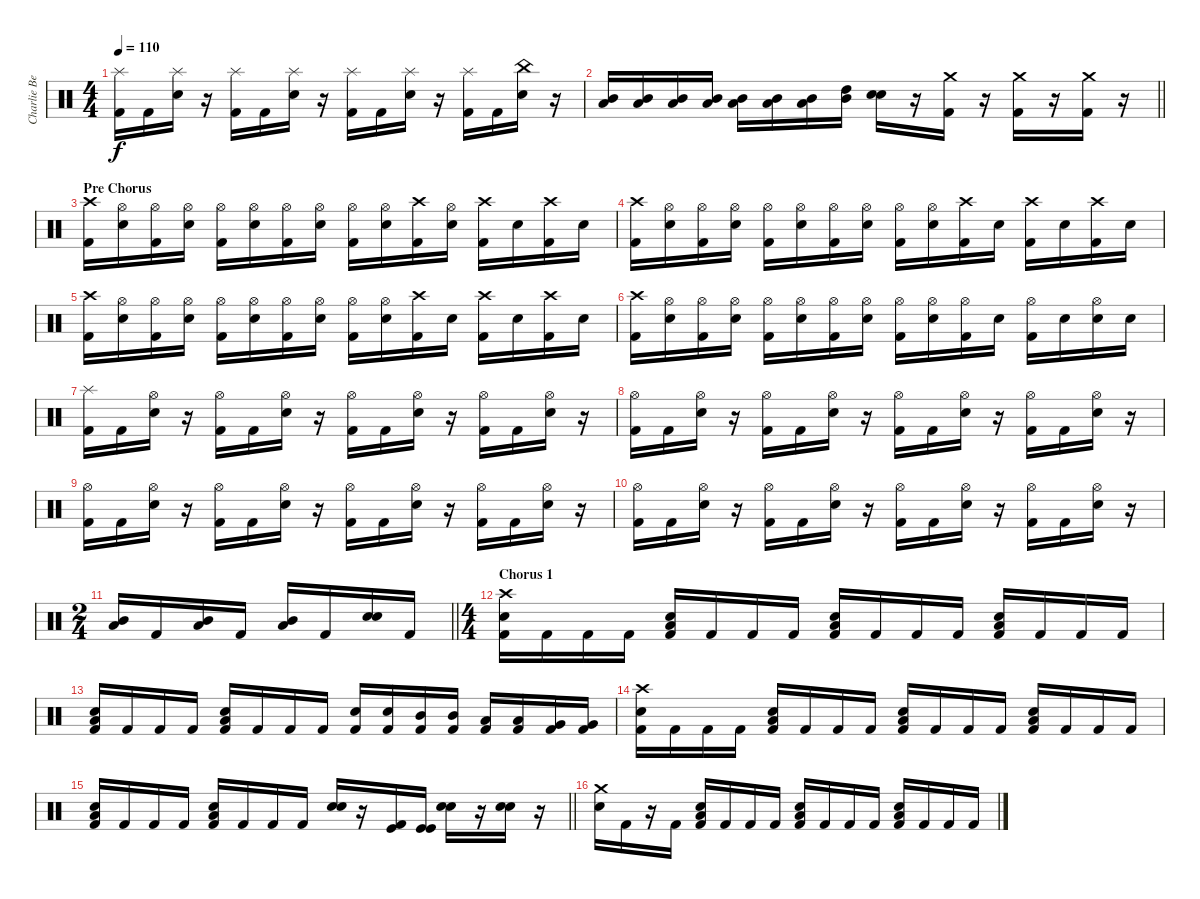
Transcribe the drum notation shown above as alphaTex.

\track ("Charlie Benante" "Charlie Be") {instrument percussion}
\staff {score}
\articulation defaults
\ts (4 4)
\tempo 110
\clef neutral
\ks c
("Splash (hit)" "Kick (hit) 2").16{dy f} "Kick (hit) 2".16 ("Splash (hit)" "Electric Snare (hit)").16 r.16 ("Splash (hit)" "Kick (hit) 2").16 "Kick (hit) 2".16 ("Splash (hit)" "Electric Snare (hit)").16 r.16 ("Splash (hit)" "Kick (hit) 2").16 "Kick (hit) 2".16 ("Splash (hit)" "Electric Snare (hit)").16 r.16 ("Splash (hit)" "Kick (hit) 2").16 "Kick (hit) 2".16 ("China (hit)" "Electric Snare (hit)").16 r.16 |
\barLineRight lightlight
("Low Tom (hit)" "Mid Tom (hit)").16 ("Low Tom (hit)" "Mid Tom (hit)").16 ("Low Tom (hit)" "Mid Tom (hit)").16 ("Low Tom (hit)" "Mid Tom (hit)").16 ("Low Tom (hit)" "Mid Tom (hit)").16 ("Low Tom (hit)" "Mid Tom (hit)").16 ("Low Tom (hit)" "Mid Tom (hit)").16 ("Mid Tom (hit)" "High Tom (hit)").16 ("Electric Snare (hit)" "Snare (hit) 2").16 r.16 ("Crash medium (hit)" "Kick (hit) 2").16 r.16 ("Crash medium (hit)" "Kick (hit) 2").16 r.16 ("Crash medium (hit)" "Kick (hit) 2").16 r.16 |
\section ("" "Pre Chorus")
("Crash high (hit)" "Kick (hit) 2").16 ("Hi-Hat (open)" "Electric Snare (hit)").16 ("Hi-Hat (open)" "Kick (hit) 2").16 ("Hi-Hat (open)" "Electric Snare (hit)").16 ("Hi-Hat (open)" "Kick (hit) 2").16 ("Hi-Hat (open)" "Electric Snare (hit)").16 ("Hi-Hat (open)" "Kick (hit) 2").16 ("Hi-Hat (open)" "Electric Snare (hit)").16 ("Hi-Hat (open)" "Kick (hit) 2").16 ("Hi-Hat (open)" "Electric Snare (hit)").16 ("Crash high (hit)" "Kick (hit) 2").16 ("Hi-Hat (open)" "Electric Snare (hit)").16 ("Crash high (hit)" "Kick (hit) 2").16 "Electric Snare (hit)".16 ("Crash high (hit)" "Kick (hit) 2").16 "Electric Snare (hit)".16 |
("Crash high (hit)" "Kick (hit) 2").16 ("Hi-Hat (open)" "Electric Snare (hit)").16 ("Hi-Hat (open)" "Kick (hit) 2").16 ("Hi-Hat (open)" "Electric Snare (hit)").16 ("Hi-Hat (open)" "Kick (hit) 2").16 ("Hi-Hat (open)" "Electric Snare (hit)").16 ("Hi-Hat (open)" "Kick (hit) 2").16 ("Hi-Hat (open)" "Electric Snare (hit)").16 ("Hi-Hat (open)" "Kick (hit) 2").16 ("Hi-Hat (open)" "Electric Snare (hit)").16 ("Crash high (hit)" "Kick (hit) 2").16 "Electric Snare (hit)".16 ("Crash high (hit)" "Kick (hit) 2").16 "Electric Snare (hit)".16 ("Crash high (hit)" "Kick (hit) 2").16 "Electric Snare (hit)".16 |
("Crash high (hit)" "Kick (hit) 2").16 ("Hi-Hat (open)" "Electric Snare (hit)").16 ("Hi-Hat (open)" "Kick (hit) 2").16 ("Hi-Hat (open)" "Electric Snare (hit)").16 ("Hi-Hat (open)" "Kick (hit) 2").16 ("Hi-Hat (open)" "Electric Snare (hit)").16 ("Hi-Hat (open)" "Kick (hit) 2").16 ("Hi-Hat (open)" "Electric Snare (hit)").16 ("Hi-Hat (open)" "Kick (hit) 2").16 ("Hi-Hat (open)" "Electric Snare (hit)").16 ("Crash high (hit)" "Kick (hit) 2").16 "Electric Snare (hit)".16 ("Crash high (hit)" "Kick (hit) 2").16 "Electric Snare (hit)".16 ("Crash high (hit)" "Kick (hit) 2").16 "Electric Snare (hit)".16 |
("Crash high (hit)" "Kick (hit) 2").16 ("Hi-Hat (open)" "Electric Snare (hit)").16 ("Hi-Hat (open)" "Kick (hit) 2").16 ("Hi-Hat (open)" "Electric Snare (hit)").16 ("Hi-Hat (open)" "Kick (hit) 2").16 ("Hi-Hat (open)" "Electric Snare (hit)").16 ("Hi-Hat (open)" "Kick (hit) 2").16 ("Hi-Hat (open)" "Electric Snare (hit)").16 ("Hi-Hat (open)" "Kick (hit) 2").16 ("Hi-Hat (open)" "Electric Snare (hit)").16 ("Hi-Hat (open)" "Kick (hit) 2").16 "Electric Snare (hit)".16 ("Hi-Hat (open)" "Kick (hit) 2").16 "Electric Snare (hit)".16 ("Hi-Hat (open)" "Electric Snare (hit)").16 "Electric Snare (hit)".16 |
("Splash (hit)" "Kick (hit) 2").16 "Kick (hit) 2".16 ("Hi-Hat (open)" "Electric Snare (hit)").16 r.16 ("Hi-Hat (open)" "Kick (hit) 2").16 "Kick (hit) 2".16 ("Hi-Hat (open)" "Electric Snare (hit)").16 r.16 ("Hi-Hat (open)" "Kick (hit) 2").16 "Kick (hit) 2".16 ("Hi-Hat (open)" "Electric Snare (hit)").16 r.16 ("Hi-Hat (open)" "Kick (hit) 2").16 "Kick (hit) 2".16 ("Hi-Hat (open)" "Electric Snare (hit)").16 r.16 |
("Hi-Hat (open)" "Kick (hit) 2").16 "Kick (hit) 2".16 ("Hi-Hat (open)" "Electric Snare (hit)").16 r.16 ("Hi-Hat (open)" "Kick (hit) 2").16 "Kick (hit) 2".16 ("Hi-Hat (open)" "Electric Snare (hit)").16 r.16 ("Hi-Hat (open)" "Kick (hit) 2").16 "Kick (hit) 2".16 ("Hi-Hat (open)" "Electric Snare (hit)").16 r.16 ("Hi-Hat (open)" "Kick (hit) 2").16 "Kick (hit) 2".16 ("Hi-Hat (open)" "Electric Snare (hit)").16 r.16 |
("Hi-Hat (open)" "Kick (hit) 2").16 "Kick (hit) 2".16 ("Hi-Hat (open)" "Electric Snare (hit)").16 r.16 ("Hi-Hat (open)" "Kick (hit) 2").16 "Kick (hit) 2".16 ("Hi-Hat (open)" "Electric Snare (hit)").16 r.16 ("Hi-Hat (open)" "Kick (hit) 2").16 "Kick (hit) 2".16 ("Hi-Hat (open)" "Electric Snare (hit)").16 r.16 ("Hi-Hat (open)" "Kick (hit) 2").16 "Kick (hit) 2".16 ("Hi-Hat (open)" "Electric Snare (hit)").16 r.16 |
("Hi-Hat (open)" "Kick (hit) 2").16 "Kick (hit) 2".16 ("Hi-Hat (open)" "Electric Snare (hit)").16 r.16 ("Hi-Hat (open)" "Kick (hit) 2").16 "Kick (hit) 2".16 ("Hi-Hat (open)" "Electric Snare (hit)").16 r.16 ("Hi-Hat (open)" "Kick (hit) 2").16 "Kick (hit) 2".16 ("Hi-Hat (open)" "Electric Snare (hit)").16 r.16 ("Hi-Hat (open)" "Kick (hit) 2").16 "Kick (hit) 2".16 ("Hi-Hat (open)" "Electric Snare (hit)").16 r.16 |
\ts (2 4)
\barLineRight lightlight
("Low Tom (hit)" "Mid Tom (hit)").16 "Kick (hit) 2".16 ("Low Tom (hit)" "Mid Tom (hit)").16 "Kick (hit) 2".16 ("Low Tom (hit)" "Mid Tom (hit)").16 "Kick (hit) 2".16 ("Snare (hit) 2" "Electric Snare (hit)").16 "Kick (hit) 2".16 |
\ts (4 4)
\section ("" "Chorus 1")
("Crash high (hit)" "Electric Snare (hit)" "Kick (hit) 2").16 "Kick (hit) 2".16 "Kick (hit) 2".16 "Kick (hit) 2".16 ("Low Floor Tom (hit)" "Electric Snare (hit)" "Kick (hit) 2").16 "Kick (hit) 2".16 "Kick (hit) 2".16 "Kick (hit) 2".16 ("Low Floor Tom (hit)" "Electric Snare (hit)" "Kick (hit) 2").16 "Kick (hit) 2".16 "Kick (hit) 2".16 "Kick (hit) 2".16 ("Low Floor Tom (hit)" "Electric Snare (hit)" "Kick (hit) 2").16 "Kick (hit) 2".16 "Kick (hit) 2".16 "Kick (hit) 2".16 |
("Low Floor Tom (hit)" "Electric Snare (hit)" "Kick (hit) 2").16 "Kick (hit) 2".16 "Kick (hit) 2".16 "Kick (hit) 2".16 ("Low Floor Tom (hit)" "Electric Snare (hit)" "Kick (hit) 2").16 "Kick (hit) 2".16 "Kick (hit) 2".16 "Kick (hit) 2".16 ("Electric Snare (hit)" "Kick (hit) 2").16 ("Electric Snare (hit)" "Kick (hit) 2").16 ("Mid Tom (hit)" "Kick (hit) 2").16 ("Mid Tom (hit)" "Kick (hit) 2").16 ("Low Tom (hit)" "Kick (hit) 2").16 ("Low Tom (hit)" "Kick (hit) 2").16 ("Very Low Tom (hit)" "Kick (hit) 2").16 ("Very Low Tom (hit)" "Kick (hit) 2").16 |
("Crash high (hit)" "Electric Snare (hit)" "Kick (hit) 2").16 "Kick (hit) 2".16 "Kick (hit) 2".16 "Kick (hit) 2".16 ("Low Floor Tom (hit)" "Electric Snare (hit)" "Kick (hit) 2").16 "Kick (hit) 2".16 "Kick (hit) 2".16 "Kick (hit) 2".16 ("Low Floor Tom (hit)" "Electric Snare (hit)" "Kick (hit) 2").16 "Kick (hit) 2".16 "Kick (hit) 2".16 "Kick (hit) 2".16 ("Low Floor Tom (hit)" "Electric Snare (hit)" "Kick (hit) 2").16 "Kick (hit) 2".16 "Kick (hit) 2".16 "Kick (hit) 2".16 |
\barLineRight lightlight
("Low Floor Tom (hit)" "Electric Snare (hit)" "Kick (hit) 2").16 "Kick (hit) 2".16 "Kick (hit) 2".16 "Kick (hit) 2".16 ("Low Floor Tom (hit)" "Electric Snare (hit)" "Kick (hit) 2").16 "Kick (hit) 2".16 "Kick (hit) 2".16 "Kick (hit) 2".16 ("Snare (hit) 2" "Electric Snare (hit)").16 r.16 ("Kick (hit)" "Kick (hit) 2").16 ("Kick (hit)" "Kick (hit)").16 ("Snare (hit) 2" "Electric Snare (hit)").16 r.16 ("Snare (hit) 2" "Electric Snare (hit)").16 r.16 |
("Crash medium (hit)" "Electric Snare (hit)").16 "Kick (hit) 2".16 r.16 "Kick (hit) 2".16 ("Low Floor Tom (hit)" "Electric Snare (hit)" "Kick (hit) 2").16 "Kick (hit) 2".16 "Kick (hit) 2".16 "Kick (hit) 2".16 ("Low Floor Tom (hit)" "Electric Snare (hit)" "Kick (hit) 2").16 "Kick (hit) 2".16 "Kick (hit) 2".16 "Kick (hit) 2".16 ("Low Floor Tom (hit)" "Electric Snare (hit)" "Kick (hit) 2").16 "Kick (hit) 2".16 "Kick (hit) 2".16 "Kick (hit) 2".16
